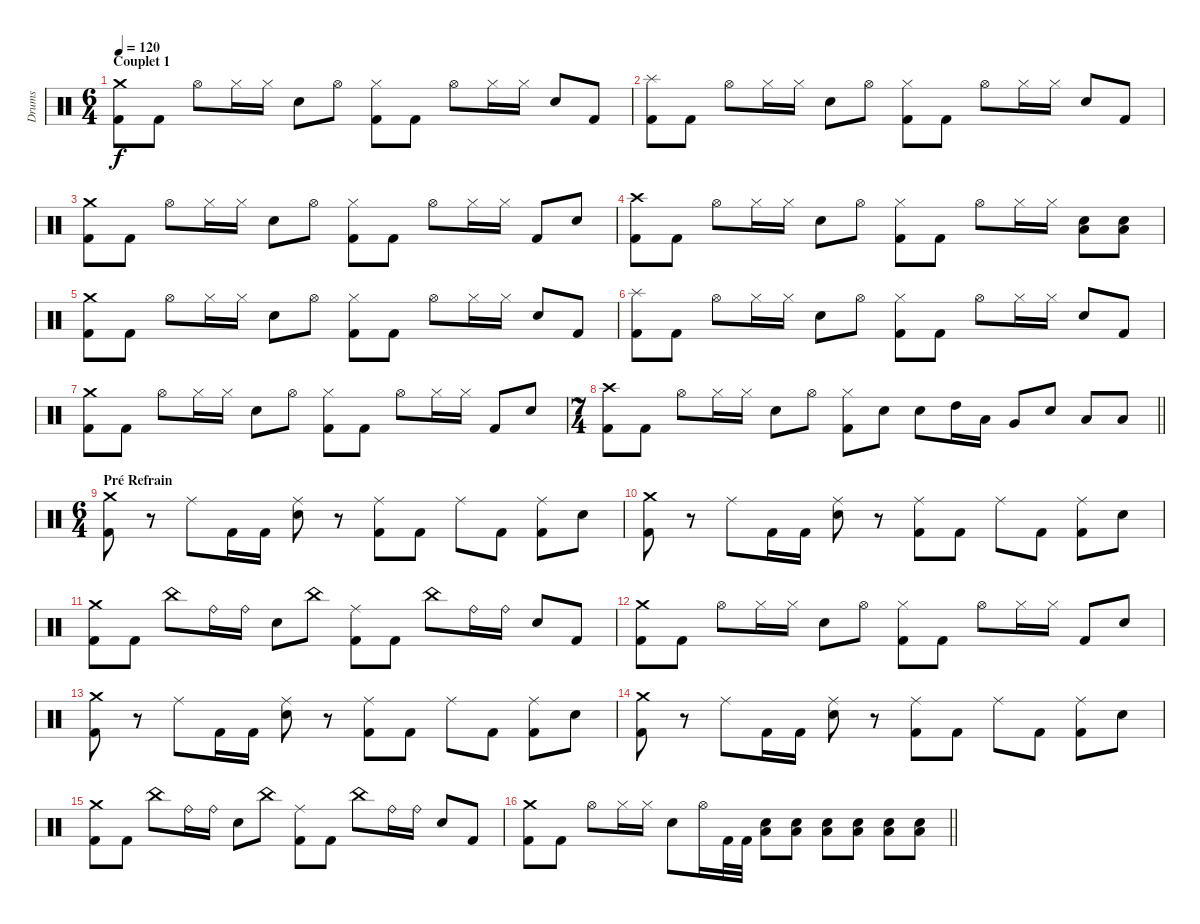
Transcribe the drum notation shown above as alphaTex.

\track ("Drums" "Drums") {instrument percussion}
\staff {score}
\articulation defaults
\ts (6 4)
\section ("" "Couplet 1")
\tempo 120
\clef neutral
\ks c
("Crash medium (hit)" "Kick (hit) 2").8{dy f} "Kick (hit) 2".8 "Hi-Hat (open)".8 "Hi-Hat (closed)".16 "Hi-Hat (closed)".16 "Snare (hit) 2".8 "Hi-Hat (open)".8 ("Hi-Hat (closed)" "Kick (hit) 2").8 "Kick (hit) 2".8 "Hi-Hat (open)".8 "Hi-Hat (closed)".16 "Hi-Hat (closed)".16 "Snare (hit) 2".8 "Kick (hit) 2".8 |
("Splash (hit)" "Kick (hit) 2").8 "Kick (hit) 2".8 "Hi-Hat (open)".8 "Hi-Hat (closed)".16 "Hi-Hat (closed)".16 "Snare (hit) 2".8 "Hi-Hat (open)".8 ("Hi-Hat (closed)" "Kick (hit) 2").8 "Kick (hit) 2".8 "Hi-Hat (open)".8 "Hi-Hat (closed)".16 "Hi-Hat (closed)".16 "Snare (hit) 2".8 "Kick (hit) 2".8 |
("Crash medium (hit)" "Kick (hit) 2").8 "Kick (hit) 2".8 "Hi-Hat (open)".8 "Hi-Hat (closed)".16 "Hi-Hat (closed)".16 "Snare (hit) 2".8 "Hi-Hat (open)".8 ("Hi-Hat (closed)" "Kick (hit) 2").8 "Kick (hit) 2".8 "Hi-Hat (open)".8 "Hi-Hat (closed)".16 "Hi-Hat (closed)".16 "Kick (hit) 2".8 "Snare (hit) 2".8 |
("Crash high (hit)" "Kick (hit) 2").8 "Kick (hit) 2".8 "Hi-Hat (open)".8 "Hi-Hat (closed)".16 "Hi-Hat (closed)".16 "Snare (hit) 2".8 "Hi-Hat (open)".8 ("Hi-Hat (closed)" "Kick (hit) 2").8 "Kick (hit) 2".8 "Hi-Hat (open)".8 "Hi-Hat (closed)".16 "Hi-Hat (closed)".16 ("Snare (hit) 2" "Low Floor Tom (hit)").8 ("Snare (hit) 2" "Low Floor Tom (hit)").8 |
("Crash medium (hit)" "Kick (hit) 2").8 "Kick (hit) 2".8 "Hi-Hat (open)".8 "Hi-Hat (closed)".16 "Hi-Hat (closed)".16 "Snare (hit) 2".8 "Hi-Hat (open)".8 ("Hi-Hat (closed)" "Kick (hit) 2").8 "Kick (hit) 2".8 "Hi-Hat (open)".8 "Hi-Hat (closed)".16 "Hi-Hat (closed)".16 "Snare (hit) 2".8 "Kick (hit) 2".8 |
("Splash (hit)" "Kick (hit) 2").8 "Kick (hit) 2".8 "Hi-Hat (open)".8 "Hi-Hat (closed)".16 "Hi-Hat (closed)".16 "Snare (hit) 2".8 "Hi-Hat (open)".8 ("Hi-Hat (closed)" "Kick (hit) 2").8 "Kick (hit) 2".8 "Hi-Hat (open)".8 "Hi-Hat (closed)".16 "Hi-Hat (closed)".16 "Snare (hit) 2".8 "Kick (hit) 2".8 |
("Crash medium (hit)" "Kick (hit) 2").8 "Kick (hit) 2".8 "Hi-Hat (open)".8 "Hi-Hat (closed)".16 "Hi-Hat (closed)".16 "Snare (hit) 2".8 "Hi-Hat (open)".8 ("Hi-Hat (closed)" "Kick (hit) 2").8 "Kick (hit) 2".8 "Hi-Hat (open)".8 "Hi-Hat (closed)".16 "Hi-Hat (closed)".16 "Kick (hit) 2".8 "Snare (hit) 2".8 |
\ts (7 4)
\barLineRight lightlight
("Crash high (hit)" "Kick (hit) 2").8 "Kick (hit) 2".8 "Hi-Hat (open)".8 "Hi-Hat (closed)".16 "Hi-Hat (closed)".16 "Snare (hit) 2".8 "Hi-Hat (open)".8 ("Hi-Hat (closed)" "Kick (hit) 2").8 "Snare (hit) 2".8 "Snare (hit) 2".8 "High Tom (hit)".16 "Low Tom (hit)".16 "Very Low Tom (hit)".8 "Snare (hit) 2".8 "Low Floor Tom (hit)".8 "Low Floor Tom (hit)".8 |
\ts (6 4)
\section ("" "Pré Refrain")
("Crash medium (hit)" "Kick (hit) 2").8 r.8 "Ride (middle)".8 "Kick (hit) 2".16 "Kick (hit) 2".16 ("Ride (middle)" "Snare (hit) 2").8 r.8 ("Ride (middle)" "Kick (hit) 2").8 "Kick (hit) 2".8 "Ride (middle)".8 "Kick (hit) 2".8 ("Ride (middle)" "Kick (hit) 2").8 "Snare (hit) 2".8 |
("Crash medium (hit)" "Kick (hit) 2").8 r.8 "Ride (middle)".8 "Kick (hit) 2".16 "Kick (hit) 2".16 ("Ride (middle)" "Snare (hit) 2").8 r.8 ("Ride (middle)" "Kick (hit) 2").8 "Kick (hit) 2".8 "Ride (middle)".8 "Kick (hit) 2".8 ("Ride (middle)" "Kick (hit) 2").8 "Snare (hit) 2".8 |
("Crash medium (hit)" "Kick (hit) 2").8 "Kick (hit) 2".8 "China (hit)".8 "Ride (bell)".16 "Ride (bell)".16 "Snare (hit) 2".8 "China (hit)".8 ("Ride (middle)" "Kick (hit) 2").8 "Kick (hit) 2".8 "China (hit)".8 "Ride (bell)".16 "Ride (bell)".16 "Snare (hit) 2".8 "Kick (hit) 2".8 |
("Crash medium (hit)" "Kick (hit) 2").8 "Kick (hit) 2".8 "Hi-Hat (open)".8 "Hi-Hat (closed)".16 "Hi-Hat (closed)".16 "Snare (hit) 2".8 "Hi-Hat (open)".8 ("Hi-Hat (closed)" "Kick (hit) 2").8 "Kick (hit) 2".8 "Hi-Hat (open)".8 "Hi-Hat (closed)".16 "Hi-Hat (closed)".16 "Kick (hit) 2".8 "Snare (hit) 2".8 |
("Crash medium (hit)" "Kick (hit) 2").8 r.8 "Ride (middle)".8 "Kick (hit) 2".16 "Kick (hit) 2".16 ("Ride (middle)" "Snare (hit) 2").8 r.8 ("Ride (middle)" "Kick (hit) 2").8 "Kick (hit) 2".8 "Ride (middle)".8 "Kick (hit) 2".8 ("Ride (middle)" "Kick (hit) 2").8 "Snare (hit) 2".8 |
("Crash medium (hit)" "Kick (hit) 2").8 r.8 "Ride (middle)".8 "Kick (hit) 2".16 "Kick (hit) 2".16 ("Ride (middle)" "Snare (hit) 2").8 r.8 ("Ride (middle)" "Kick (hit) 2").8 "Kick (hit) 2".8 "Ride (middle)".8 "Kick (hit) 2".8 ("Ride (middle)" "Kick (hit) 2").8 "Snare (hit) 2".8 |
("Crash medium (hit)" "Kick (hit) 2").8 "Kick (hit) 2".8 "China (hit)".8 "Ride (bell)".16 "Ride (bell)".16 "Snare (hit) 2".8 "China (hit)".8 ("Ride (middle)" "Kick (hit) 2").8 "Kick (hit) 2".8 "China (hit)".8 "Ride (bell)".16 "Ride (bell)".16 "Snare (hit) 2".8 "Kick (hit) 2".8 |
\barLineRight lightlight
("Crash medium (hit)" "Kick (hit) 2").8 "Kick (hit) 2".8 "Hi-Hat (open)".8 "Hi-Hat (closed)".16 "Hi-Hat (closed)".16 "Snare (hit) 2".8 "Hi-Hat (open)".16 "Kick (hit) 2".32 "Kick (hit) 2".32 ("Snare (hit) 2" "Low Floor Tom (hit)").8 ("Snare (hit) 2" "Low Floor Tom (hit)").8 ("Snare (hit) 2" "Low Floor Tom (hit)").8 ("Snare (hit) 2" "Low Floor Tom (hit)").8 ("Snare (hit) 2" "Low Floor Tom (hit)").8 ("Snare (hit) 2" "Low Floor Tom (hit)").8
